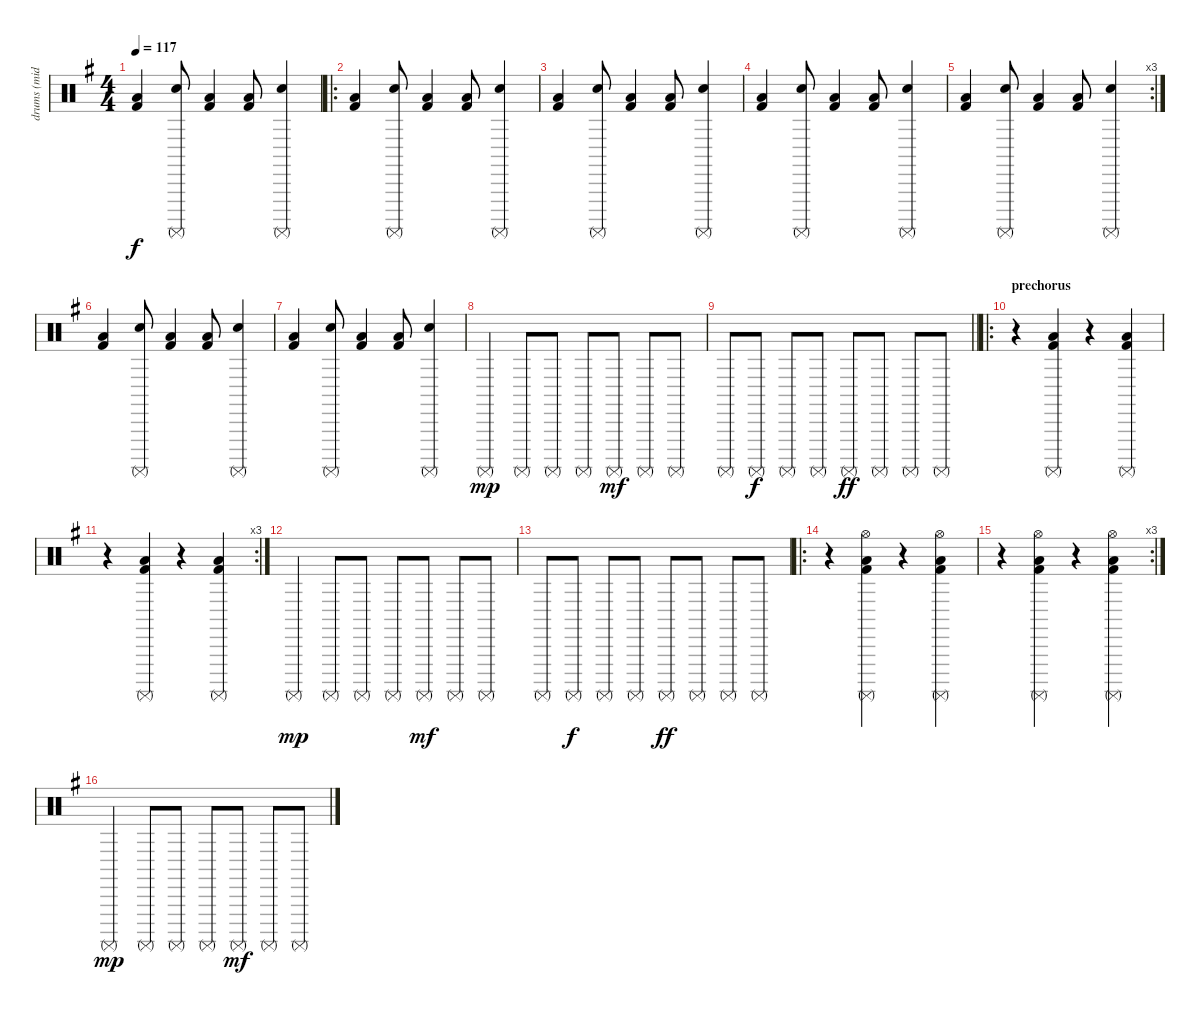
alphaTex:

\track ("drums (midi sounds better)" "drums (mid") {instrument percussion}
\staff {score}
\articulation defaults
\ts (4 4)
\tempo 117
\clef neutral
\ks g
("Kick (hit) 2" "Low Floor Tom (hit)").4{dy f} ("Snare (hit) 2" "Surdo (mute)").8 ("Kick (hit) 2" "Low Floor Tom (hit)").4 ("Kick (hit) 2" "Low Floor Tom (hit)").8 ("Snare (hit) 2" "Surdo (mute)").4 |
\ro
("Kick (hit) 2" "Low Floor Tom (hit)").4 ("Snare (hit) 2" "Surdo (mute)").8 ("Kick (hit) 2" "Low Floor Tom (hit)").4 ("Kick (hit) 2" "Low Floor Tom (hit)").8 ("Snare (hit) 2" "Surdo (mute)").4 |
("Kick (hit) 2" "Low Floor Tom (hit)").4 ("Snare (hit) 2" "Surdo (mute)").8 ("Kick (hit) 2" "Low Floor Tom (hit)").4 ("Kick (hit) 2" "Low Floor Tom (hit)").8 ("Snare (hit) 2" "Surdo (mute)").4 |
("Kick (hit) 2" "Low Floor Tom (hit)").4 ("Snare (hit) 2" "Surdo (mute)").8 ("Kick (hit) 2" "Low Floor Tom (hit)").4 ("Kick (hit) 2" "Low Floor Tom (hit)").8 ("Snare (hit) 2" "Surdo (mute)").4 |
\rc 3
("Kick (hit) 2" "Low Floor Tom (hit)").4 ("Snare (hit) 2" "Surdo (mute)").8 ("Kick (hit) 2" "Low Floor Tom (hit)").4 ("Kick (hit) 2" "Low Floor Tom (hit)").8 ("Snare (hit) 2" "Surdo (mute)").4 |
("Kick (hit) 2" "Low Floor Tom (hit)").4 ("Snare (hit) 2" "Surdo (mute)").8 ("Kick (hit) 2" "Low Floor Tom (hit)").4 ("Kick (hit) 2" "Low Floor Tom (hit)").8 ("Snare (hit) 2" "Surdo (mute)").4 |
("Kick (hit) 2" "Low Floor Tom (hit)").4 ("Snare (hit) 2" "Surdo (mute)").8 ("Kick (hit) 2" "Low Floor Tom (hit)").4 ("Kick (hit) 2" "Low Floor Tom (hit)").8 ("Snare (hit) 2" "Surdo (mute)").4 |
"Surdo (mute)".4{dy mp} "Surdo (mute)".8 "Surdo (mute)".8 "Surdo (mute)".8 "Surdo (mute)".8{dy mf} "Surdo (mute)".8 "Surdo (mute)".8 |
\barLineRight lightlight "Surdo (mute)".8 "Surdo (mute)".8{dy f} "Surdo (mute)".8 "Surdo (mute)".8 "Surdo (mute)".8{dy ff} "Surdo (mute)".8 "Surdo (mute)".8 "Surdo (mute)".8
|
\ro
\section ("" "prechorus")
r.4 ("Kick (hit) 2" "Surdo (mute)" "Low Floor Tom (hit)").4 r.4 ("Kick (hit) 2" "Surdo (mute)" "Low Floor Tom (hit)").4 |
\rc 3
r.4 ("Kick (hit) 2" "Surdo (mute)" "Low Floor Tom (hit)").4 r.4 ("Kick (hit) 2" "Surdo (mute)" "Low Floor Tom (hit)").4 |
"Surdo (mute)".4{dy mp} "Surdo (mute)".8 "Surdo (mute)".8 "Surdo (mute)".8 "Surdo (mute)".8{dy mf} "Surdo (mute)".8 "Surdo (mute)".8 |
"Surdo (mute)".8 "Surdo (mute)".8{dy f} "Surdo (mute)".8 "Surdo (mute)".8 "Surdo (mute)".8{dy ff} "Surdo (mute)".8 "Surdo (mute)".8 "Surdo (mute)".8 |
\ro
r.4 ("Kick (hit) 2" "Surdo (mute)" "Low Floor Tom (hit)" "Hi-Hat (open)").4 r.4 ("Kick (hit) 2" "Surdo (mute)" "Low Floor Tom (hit)" "Hi-Hat (open)").4 |
\rc 3
r.4 ("Kick (hit) 2" "Surdo (mute)" "Low Floor Tom (hit)" "Hi-Hat (open)").4 r.4 ("Kick (hit) 2" "Surdo (mute)" "Low Floor Tom (hit)" "Hi-Hat (open)").4 |
"Surdo (mute)".4{dy mp} "Surdo (mute)".8 "Surdo (mute)".8 "Surdo (mute)".8 "Surdo (mute)".8{dy mf} "Surdo (mute)".8 "Surdo (mute)".8
